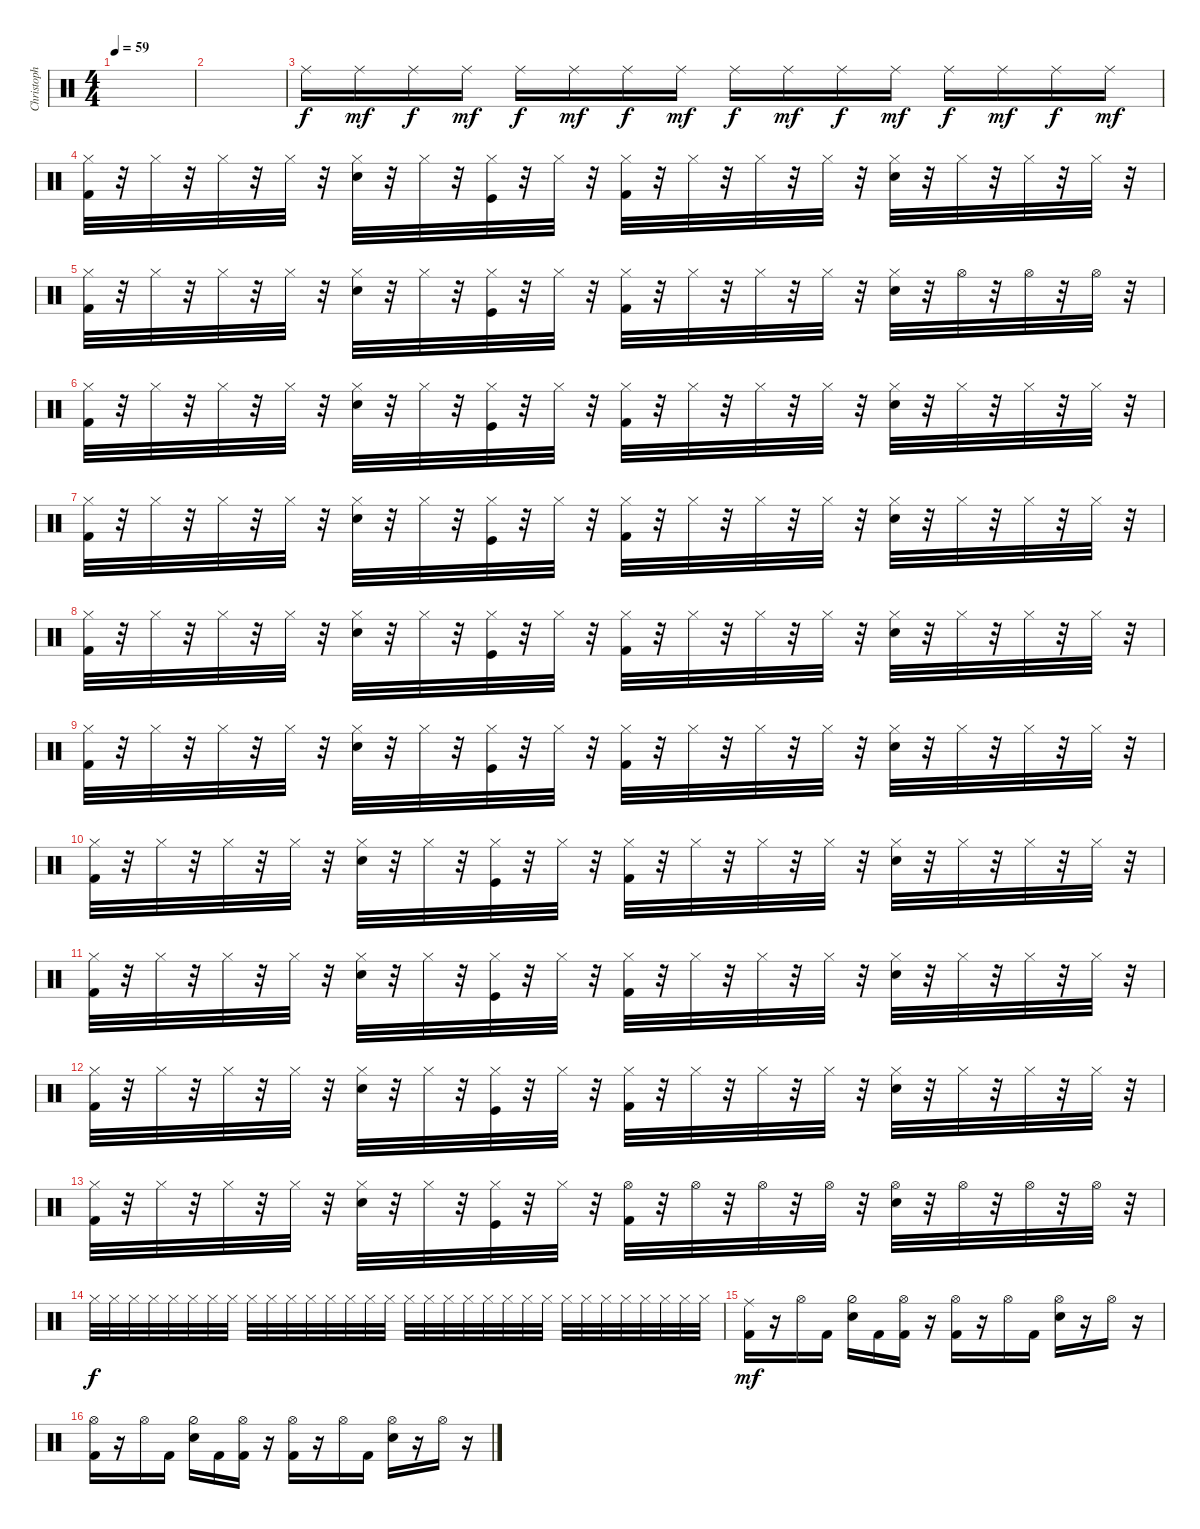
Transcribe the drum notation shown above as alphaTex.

\track ("Christoph Schneider " "Christoph ") {instrument percussion}
\staff {score}
\articulation defaults
\ts (4 4)
\tempo 59
\clef neutral
\ks c
|
|
"Ride (middle)".16 "Ride (middle)".16{dy mf} "Ride (middle)".16{dy f} "Ride (middle)".16{dy mf} "Ride (middle)".16{dy f} "Ride (middle)".16{dy mf} "Ride (middle)".16{dy f} "Ride (middle)".16{dy mf} "Ride (middle)".16{dy f} "Ride (middle)".16{dy mf} "Ride (middle)".16{dy f} "Ride (middle)".16{dy mf} "Ride (middle)".16{dy f} "Ride (middle)".16{dy mf} "Ride (middle)".16{dy f} "Ride (middle)".16{dy mf} |
("Kick (hit) 2" "Hi-Hat (closed)").32 r.32 "Hi-Hat (closed)".32 r.32 "Hi-Hat (closed)".32 r.32 "Hi-Hat (closed)".32 r.32 ("Snare (hit) 2" "Hi-Hat (closed)").32 r.32 "Hi-Hat (closed)".32 r.32 ("Hi-Hat (closed)" "Kick (hit)").32 r.32 "Hi-Hat (closed)".32 r.32 ("Kick (hit) 2" "Hi-Hat (closed)").32 r.32 "Hi-Hat (closed)".32 r.32 "Hi-Hat (closed)".32 r.32 "Hi-Hat (closed)".32 r.32 ("Snare (hit) 2" "Hi-Hat (closed)").32 r.32 "Hi-Hat (closed)".32 r.32 "Hi-Hat (closed)".32 r.32 "Hi-Hat (closed)".32 r.32 |
("Kick (hit) 2" "Hi-Hat (closed)").32 r.32 "Hi-Hat (closed)".32 r.32 "Hi-Hat (closed)".32 r.32 "Hi-Hat (closed)".32 r.32 ("Snare (hit) 2" "Hi-Hat (closed)").32 r.32 "Hi-Hat (closed)".32 r.32 ("Hi-Hat (closed)" "Kick (hit)").32 r.32 "Hi-Hat (closed)".32 r.32 ("Kick (hit) 2" "Hi-Hat (closed)").32 r.32 "Hi-Hat (closed)".32 r.32 "Hi-Hat (closed)".32 r.32 "Hi-Hat (closed)".32 r.32 ("Snare (hit) 2" "Hi-Hat (closed)").32 r.32 "Hi-Hat (open)".32 r.32 "Hi-Hat (open)".32 r.32 "Hi-Hat (open)".32 r.32 |
("Kick (hit) 2" "Hi-Hat (closed)").32 r.32 "Hi-Hat (closed)".32 r.32 "Hi-Hat (closed)".32 r.32 "Hi-Hat (closed)".32 r.32 ("Snare (hit) 2" "Hi-Hat (closed)").32 r.32 "Hi-Hat (closed)".32 r.32 ("Hi-Hat (closed)" "Kick (hit)").32 r.32 "Hi-Hat (closed)".32 r.32 ("Kick (hit) 2" "Hi-Hat (closed)").32 r.32 "Hi-Hat (closed)".32 r.32 "Hi-Hat (closed)".32 r.32 "Hi-Hat (closed)".32 r.32 ("Snare (hit) 2" "Hi-Hat (closed)").32 r.32 "Hi-Hat (closed)".32 r.32 "Hi-Hat (closed)".32 r.32 "Hi-Hat (closed)".32 r.32 |
("Kick (hit) 2" "Hi-Hat (closed)").32 r.32 "Hi-Hat (closed)".32 r.32 "Hi-Hat (closed)".32 r.32 "Hi-Hat (closed)".32 r.32 ("Snare (hit) 2" "Hi-Hat (closed)").32 r.32 "Hi-Hat (closed)".32 r.32 ("Hi-Hat (closed)" "Kick (hit)").32 r.32 "Hi-Hat (closed)".32 r.32 ("Kick (hit) 2" "Hi-Hat (closed)").32 r.32 "Hi-Hat (closed)".32 r.32 "Hi-Hat (closed)".32 r.32 "Hi-Hat (closed)".32 r.32 ("Snare (hit) 2" "Hi-Hat (closed)").32 r.32 "Hi-Hat (closed)".32 r.32 "Hi-Hat (closed)".32 r.32 "Hi-Hat (closed)".32 r.32 |
("Kick (hit) 2" "Hi-Hat (closed)").32 r.32 "Hi-Hat (closed)".32 r.32 "Hi-Hat (closed)".32 r.32 "Hi-Hat (closed)".32 r.32 ("Snare (hit) 2" "Hi-Hat (closed)").32 r.32 "Hi-Hat (closed)".32 r.32 ("Hi-Hat (closed)" "Kick (hit)").32 r.32 "Hi-Hat (closed)".32 r.32 ("Kick (hit) 2" "Hi-Hat (closed)").32 r.32 "Hi-Hat (closed)".32 r.32 "Hi-Hat (closed)".32 r.32 "Hi-Hat (closed)".32 r.32 ("Snare (hit) 2" "Hi-Hat (closed)").32 r.32 "Hi-Hat (closed)".32 r.32 "Hi-Hat (closed)".32 r.32 "Hi-Hat (closed)".32 r.32 |
("Kick (hit) 2" "Hi-Hat (closed)").32 r.32 "Hi-Hat (closed)".32 r.32 "Hi-Hat (closed)".32 r.32 "Hi-Hat (closed)".32 r.32 ("Snare (hit) 2" "Hi-Hat (closed)").32 r.32 "Hi-Hat (closed)".32 r.32 ("Hi-Hat (closed)" "Kick (hit)").32 r.32 "Hi-Hat (closed)".32 r.32 ("Kick (hit) 2" "Hi-Hat (closed)").32 r.32 "Hi-Hat (closed)".32 r.32 "Hi-Hat (closed)".32 r.32 "Hi-Hat (closed)".32 r.32 ("Snare (hit) 2" "Hi-Hat (closed)").32 r.32 "Hi-Hat (closed)".32 r.32 "Hi-Hat (closed)".32 r.32 "Hi-Hat (closed)".32 r.32 |
("Kick (hit) 2" "Hi-Hat (closed)").32 r.32 "Hi-Hat (closed)".32 r.32 "Hi-Hat (closed)".32 r.32 "Hi-Hat (closed)".32 r.32 ("Snare (hit) 2" "Hi-Hat (closed)").32 r.32 "Hi-Hat (closed)".32 r.32 ("Hi-Hat (closed)" "Kick (hit)").32 r.32 "Hi-Hat (closed)".32 r.32 ("Kick (hit) 2" "Hi-Hat (closed)").32 r.32 "Hi-Hat (closed)".32 r.32 "Hi-Hat (closed)".32 r.32 "Hi-Hat (closed)".32 r.32 ("Snare (hit) 2" "Hi-Hat (closed)").32 r.32 "Hi-Hat (closed)".32 r.32 "Hi-Hat (closed)".32 r.32 "Hi-Hat (closed)".32 r.32 |
("Kick (hit) 2" "Hi-Hat (closed)").32 r.32 "Hi-Hat (closed)".32 r.32 "Hi-Hat (closed)".32 r.32 "Hi-Hat (closed)".32 r.32 ("Snare (hit) 2" "Hi-Hat (closed)").32 r.32 "Hi-Hat (closed)".32 r.32 ("Hi-Hat (closed)" "Kick (hit)").32 r.32 "Hi-Hat (closed)".32 r.32 ("Kick (hit) 2" "Hi-Hat (closed)").32 r.32 "Hi-Hat (closed)".32 r.32 "Hi-Hat (closed)".32 r.32 "Hi-Hat (closed)".32 r.32 ("Snare (hit) 2" "Hi-Hat (closed)").32 r.32 "Hi-Hat (closed)".32 r.32 "Hi-Hat (closed)".32 r.32 "Hi-Hat (closed)".32 r.32 |
("Kick (hit) 2" "Hi-Hat (closed)").32 r.32 "Hi-Hat (closed)".32 r.32 "Hi-Hat (closed)".32 r.32 "Hi-Hat (closed)".32 r.32 ("Snare (hit) 2" "Hi-Hat (closed)").32 r.32 "Hi-Hat (closed)".32 r.32 ("Hi-Hat (closed)" "Kick (hit)").32 r.32 "Hi-Hat (closed)".32 r.32 ("Kick (hit) 2" "Hi-Hat (closed)").32 r.32 "Hi-Hat (closed)".32 r.32 "Hi-Hat (closed)".32 r.32 "Hi-Hat (closed)".32 r.32 ("Snare (hit) 2" "Hi-Hat (closed)").32 r.32 "Hi-Hat (closed)".32 r.32 "Hi-Hat (closed)".32 r.32 "Hi-Hat (closed)".32 r.32 |
("Kick (hit) 2" "Hi-Hat (closed)").32 r.32 "Hi-Hat (closed)".32 r.32 "Hi-Hat (closed)".32 r.32 "Hi-Hat (closed)".32 r.32 ("Snare (hit) 2" "Hi-Hat (closed)").32 r.32 "Hi-Hat (closed)".32 r.32 ("Kick (hit)" "Hi-Hat (closed)").32 r.32 "Hi-Hat (closed)".32 r.32 ("Hi-Hat (open)" "Kick (hit) 2").32 r.32 "Hi-Hat (open)".32 r.32 "Hi-Hat (open)".32 r.32 "Hi-Hat (open)".32 r.32 ("Snare (hit) 2" "Hi-Hat (open)").32 r.32 "Hi-Hat (open)".32 r.32 "Hi-Hat (open)".32 r.32 "Hi-Hat (open)".32 r.32 |
"Hi-Hat (closed)".32{dy f} "Hi-Hat (closed)".32 "Hi-Hat (closed)".32 "Hi-Hat (closed)".32 "Hi-Hat (closed)".32 "Hi-Hat (closed)".32 "Hi-Hat (closed)".32 "Hi-Hat (closed)".32 "Hi-Hat (closed)".32 "Hi-Hat (closed)".32 "Hi-Hat (closed)".32 "Hi-Hat (closed)".32 "Hi-Hat (closed)".32 "Hi-Hat (closed)".32 "Hi-Hat (closed)".32 "Hi-Hat (closed)".32 "Hi-Hat (closed)".32 "Hi-Hat (closed)".32 "Hi-Hat (closed)".32 "Hi-Hat (closed)".32 "Hi-Hat (closed)".32 "Hi-Hat (closed)".32 "Hi-Hat (closed)".32 "Hi-Hat (closed)".32 "Hi-Hat (closed)".32 "Hi-Hat (closed)".32 "Hi-Hat (closed)".32 "Hi-Hat (closed)".32 "Hi-Hat (closed)".32 "Hi-Hat (closed)".32 "Hi-Hat (closed)".32 "Hi-Hat (closed)".32 |
("Kick (hit) 2" "Ride (middle)").16{dy mf} r.16 "Hi-Hat (open)".16 "Kick (hit) 2".16 ("Snare (hit) 2" "Hi-Hat (half)").16 "Kick (hit) 2".16 ("Kick (hit) 2" "Hi-Hat (open)").16 r.16 ("Kick (hit) 2" "Hi-Hat (open)").16 r.16 "Hi-Hat (open)".16 "Kick (hit) 2".16 ("Snare (hit) 2" "Hi-Hat (open)").16 r.16 "Hi-Hat (open)".16 r.16 |
("Kick (hit) 2" "Hi-Hat (open)").16 r.16 "Hi-Hat (open)".16 "Kick (hit) 2".16 ("Snare (hit) 2" "Hi-Hat (half)").16 "Kick (hit) 2".16 ("Kick (hit) 2" "Hi-Hat (open)").16 r.16 ("Kick (hit) 2" "Hi-Hat (open)").16 r.16 "Hi-Hat (open)".16 "Kick (hit) 2".16 ("Snare (hit) 2" "Hi-Hat (open)").16 r.16 "Hi-Hat (open)".16 r.16
